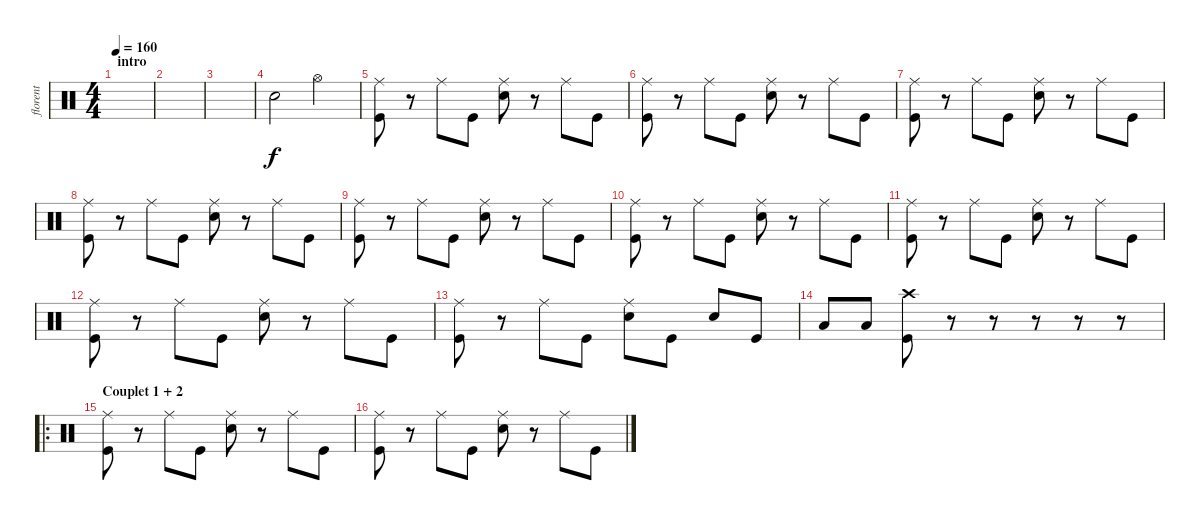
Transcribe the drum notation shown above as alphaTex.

\track ("florent" "florent") {instrument percussion}
\staff {score}
\articulation defaults
\ts (4 4)
\section ("" "intro")
\tempo 160
\clef neutral
\ks c
|
|
|
"Snare (hit) 2".2 "Hi-Hat (open)".2 |
("Ride (middle)" "Kick (hit)").8 r.8 "Ride (middle)".8 "Kick (hit)".8 ("Ride (middle)" "Snare (hit) 2").8 r.8 "Ride (middle)".8 "Kick (hit)".8 |
("Ride (middle)" "Kick (hit)").8 r.8 "Ride (middle)".8 "Kick (hit)".8 ("Ride (middle)" "Snare (hit) 2").8 r.8 "Ride (middle)".8 "Kick (hit)".8 |
("Ride (middle)" "Kick (hit)").8 r.8 "Ride (middle)".8 "Kick (hit)".8 ("Ride (middle)" "Snare (hit) 2").8 r.8 "Ride (middle)".8 "Kick (hit)".8 |
("Ride (middle)" "Kick (hit)").8 r.8 "Ride (middle)".8 "Kick (hit)".8 ("Ride (middle)" "Snare (hit) 2").8 r.8 "Ride (middle)".8 "Kick (hit)".8 |
("Ride (middle)" "Kick (hit)").8 r.8 "Ride (middle)".8 "Kick (hit)".8 ("Ride (middle)" "Snare (hit) 2").8 r.8 "Ride (middle)".8 "Kick (hit)".8 |
("Ride (middle)" "Kick (hit)").8 r.8 "Ride (middle)".8 "Kick (hit)".8 ("Ride (middle)" "Snare (hit) 2").8 r.8 "Ride (middle)".8 "Kick (hit)".8 |
("Ride (middle)" "Kick (hit)").8 r.8 "Ride (middle)".8 "Kick (hit)".8 ("Ride (middle)" "Snare (hit) 2").8 r.8 "Ride (middle)".8 "Kick (hit)".8 |
("Ride (middle)" "Kick (hit)").8 r.8 "Ride (middle)".8 "Kick (hit)".8 ("Ride (middle)" "Snare (hit) 2").8 r.8 "Ride (middle)".8 "Kick (hit)".8 |
("Ride (middle)" "Kick (hit)").8 r.8 "Ride (middle)".8 "Kick (hit)".8 ("Ride (middle)" "Snare (hit) 2").8 "Kick (hit)".8 "Snare (hit) 2".8 "Kick (hit)".8 |
"Low Floor Tom (hit)".8 "Low Floor Tom (hit)".8 ("Kick (hit)" "Crash high (hit)").8 r.8 r.8 r.8 r.8 r.8 |
\ro
\section ("" "Couplet 1 + 2")
("Ride (middle)" "Kick (hit)").8 r.8 "Ride (middle)".8 "Kick (hit)".8 ("Ride (middle)" "Snare (hit) 2").8 r.8 "Ride (middle)".8 "Kick (hit)".8 |
("Ride (middle)" "Kick (hit)").8 r.8 "Ride (middle)".8 "Kick (hit)".8 ("Ride (middle)" "Snare (hit) 2").8 r.8 "Ride (middle)".8 "Kick (hit)".8
